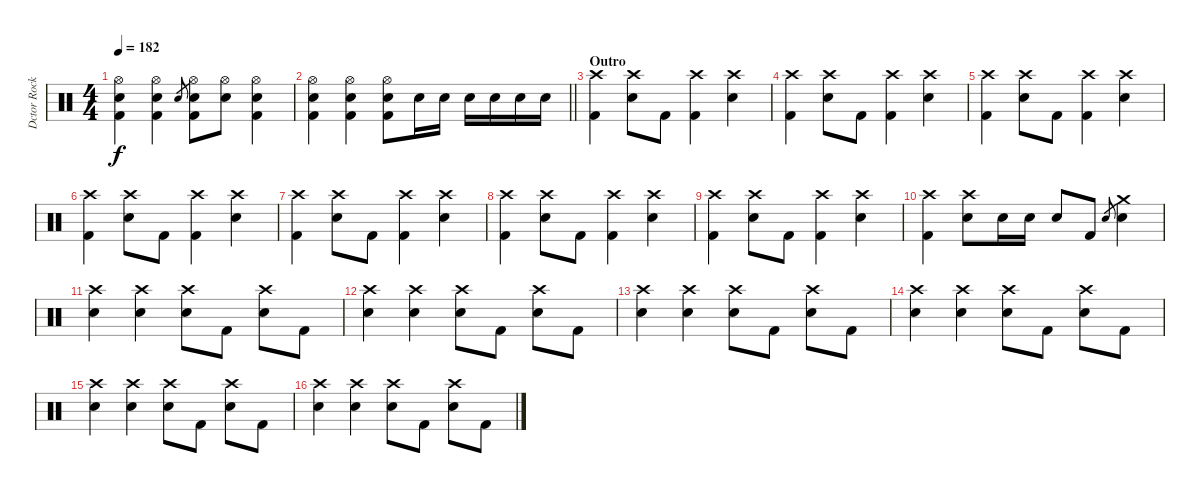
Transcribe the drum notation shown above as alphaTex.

\track ("Dctor Rock" "Dctor Rock") {instrument percussion}
\staff {score}
\articulation defaults
\ts (4 4)
\tempo 182
\clef neutral
\ks c
("Hi-Hat (open)" "Snare (hit) 2" "Kick (hit) 2").4{dy f} ("Hi-Hat (open)" "Snare (hit) 2" "Kick (hit) 2").4 "Snare (hit) 2".8{gr} ("Hi-Hat (open)" "Snare (hit) 2" "Kick (hit) 2").8 ("Hi-Hat (open)" "Snare (hit) 2").8 ("Hi-Hat (open)" "Snare (hit) 2" "Kick (hit) 2").4 |
\barLineRight lightlight
("Hi-Hat (open)" "Snare (hit) 2" "Kick (hit) 2").4 ("Hi-Hat (open)" "Snare (hit) 2" "Kick (hit) 2").4 ("Hi-Hat (open)" "Snare (hit) 2" "Kick (hit) 2").8 "Snare (hit) 2".16 "Snare (hit) 2".16 "Snare (hit) 2".16 "Snare (hit) 2".16 "Snare (hit) 2".16 "Snare (hit) 2".16 |
\section ("" "Outro")
("Crash high (hit)" "Kick (hit) 2").4 ("Crash high (hit)" "Snare (hit) 2").8 "Kick (hit) 2".8 ("Crash high (hit)" "Kick (hit) 2").4 ("Crash high (hit)" "Snare (hit) 2").4 |
("Crash high (hit)" "Kick (hit) 2").4 ("Crash high (hit)" "Snare (hit) 2").8 "Kick (hit) 2".8 ("Crash high (hit)" "Kick (hit) 2").4 ("Crash high (hit)" "Snare (hit) 2").4 |
("Crash high (hit)" "Kick (hit) 2").4 ("Crash high (hit)" "Snare (hit) 2").8 "Kick (hit) 2".8 ("Crash high (hit)" "Kick (hit) 2").4 ("Crash high (hit)" "Snare (hit) 2").4 |
("Crash high (hit)" "Kick (hit) 2").4 ("Crash high (hit)" "Snare (hit) 2").8 "Kick (hit) 2".8 ("Crash high (hit)" "Kick (hit) 2").4 ("Crash high (hit)" "Snare (hit) 2").4 |
("Crash high (hit)" "Kick (hit) 2").4 ("Crash high (hit)" "Snare (hit) 2").8 "Kick (hit) 2".8 ("Crash high (hit)" "Kick (hit) 2").4 ("Crash high (hit)" "Snare (hit) 2").4 |
("Crash high (hit)" "Kick (hit) 2").4 ("Crash high (hit)" "Snare (hit) 2").8 "Kick (hit) 2".8 ("Crash high (hit)" "Kick (hit) 2").4 ("Crash high (hit)" "Snare (hit) 2").4 |
("Crash high (hit)" "Kick (hit) 2").4 ("Crash high (hit)" "Snare (hit) 2").8 "Kick (hit) 2".8 ("Crash high (hit)" "Kick (hit) 2").4 ("Crash high (hit)" "Snare (hit) 2").4 |
("Crash high (hit)" "Kick (hit) 2").4 ("Crash high (hit)" "Snare (hit) 2").8 "Snare (hit) 2".16 "Snare (hit) 2".16 "Snare (hit) 2".8 "Kick (hit) 2".8 "Snare (hit) 2".8{gr} ("Crash medium (hit)" "Snare (hit) 2").4 |
("Crash high (hit)" "Snare (hit) 2").4 ("Crash high (hit)" "Snare (hit) 2").4 ("Crash high (hit)" "Snare (hit) 2").8 "Kick (hit) 2".8 ("Crash high (hit)" "Snare (hit) 2").8 "Kick (hit) 2".8 |
("Crash high (hit)" "Snare (hit) 2").4 ("Crash high (hit)" "Snare (hit) 2").4 ("Crash high (hit)" "Snare (hit) 2").8 "Kick (hit) 2".8 ("Crash high (hit)" "Snare (hit) 2").8 "Kick (hit) 2".8 |
("Crash high (hit)" "Snare (hit) 2").4 ("Crash high (hit)" "Snare (hit) 2").4 ("Crash high (hit)" "Snare (hit) 2").8 "Kick (hit) 2".8 ("Crash high (hit)" "Snare (hit) 2").8 "Kick (hit) 2".8 |
("Crash high (hit)" "Snare (hit) 2").4 ("Crash high (hit)" "Snare (hit) 2").4 ("Crash high (hit)" "Snare (hit) 2").8 "Kick (hit) 2".8 ("Crash high (hit)" "Snare (hit) 2").8 "Kick (hit) 2".8 |
("Crash high (hit)" "Snare (hit) 2").4 ("Crash high (hit)" "Snare (hit) 2").4 ("Crash high (hit)" "Snare (hit) 2").8 "Kick (hit) 2".8 ("Crash high (hit)" "Snare (hit) 2").8 "Kick (hit) 2".8 |
("Crash high (hit)" "Snare (hit) 2").4 ("Crash high (hit)" "Snare (hit) 2").4 ("Crash high (hit)" "Snare (hit) 2").8 "Kick (hit) 2".8 ("Crash high (hit)" "Snare (hit) 2").8 "Kick (hit) 2".8
